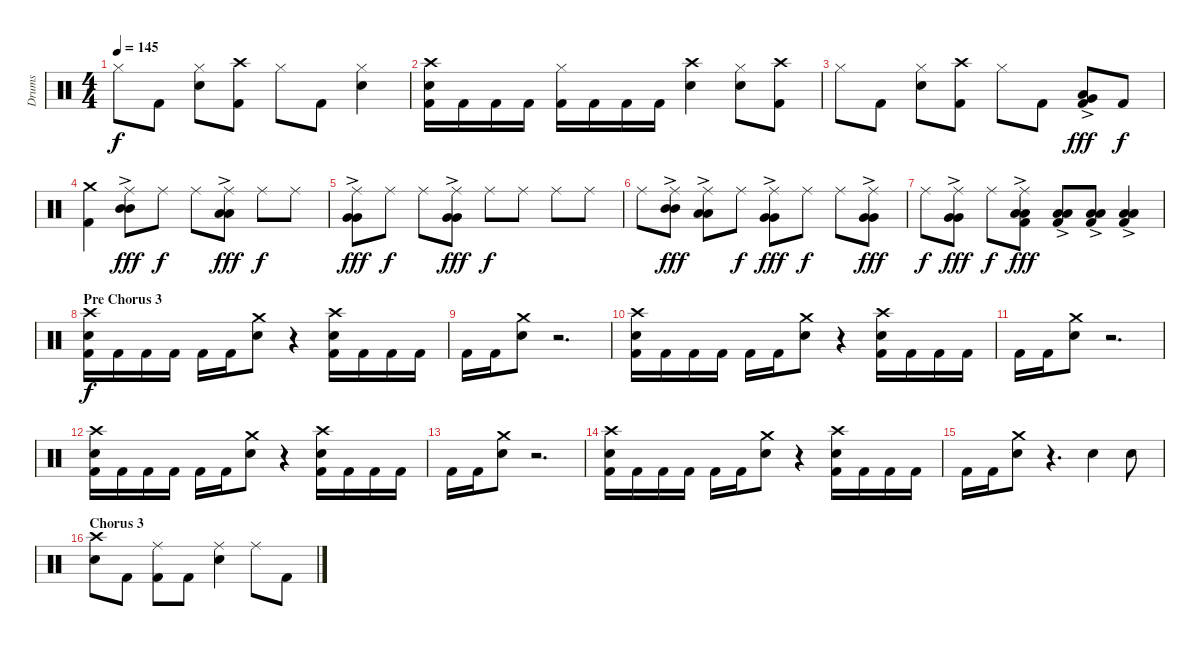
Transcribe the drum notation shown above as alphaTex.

\track ("Drums" "Drums") {instrument percussion}
\staff {score}
\articulation defaults
\ts (4 4)
\tempo 145
\clef neutral
\ks c "Hi-Hat (closed)".8{dy f} "Kick (hit) 2".8
("Hi-Hat (closed)" "Snare (hit) 2").8 ("Crash high (hit)" "Kick (hit) 2").8 "Hi-Hat (closed)".8 "Kick (hit) 2".8 ("Hi-Hat (closed)" "Snare (hit) 2").4 |
("Crash high (hit)" "Snare (hit) 2" "Kick (hit) 2").16 "Kick (hit) 2".16 "Kick (hit) 2".16 "Kick (hit) 2".16 ("Hi-Hat (closed)" "Kick (hit) 2").16 "Kick (hit) 2".16 "Kick (hit) 2".16 "Kick (hit) 2".16 ("Crash high (hit)" "Snare (hit) 2").4 ("Hi-Hat (closed)" "Snare (hit) 2").8 ("Crash high (hit)" "Kick (hit) 2").8 |
"Hi-Hat (closed)".8 "Kick (hit) 2".8 ("Hi-Hat (closed)" "Snare (hit) 2").8 ("Crash high (hit)" "Kick (hit) 2").8 "Hi-Hat (closed)".8 "Kick (hit) 2".8 ("Low Tom (hit)"{ac} "Very Low Tom (hit)"{ac} "Kick (hit) 2").8{dy fff} "Kick (hit) 2".8{dy f} |
("Crash medium (hit)" "Kick (hit) 2").4 ("Ride (middle)" "Mid Tom (hit)"{ac} "Mid Tom (hit)"{ac}).8{dy fff} "Ride (middle)".8{dy f} "Ride (middle)".8 ("Ride (middle)" "Low Tom (hit)"{ac} "Low Tom (hit)"{ac}).8{dy fff} "Ride (middle)".8{dy f} "Ride (middle)".8 |
("Ride (middle)" "Very Low Tom (hit)"{ac} "Very Low Tom (hit)"{ac}).8{dy fff} "Ride (middle)".8{dy f} "Ride (middle)".8 ("Ride (middle)" "Very Low Tom (hit)"{ac} "Very Low Tom (hit)"{ac}).8{dy fff} "Ride (middle)".8{dy f} "Ride (middle)".8 "Ride (middle)".8 "Ride (middle)".8 |
"Ride (middle)".8 ("Ride (middle)" "Mid Tom (hit)" "Mid Tom (hit)"{ac}).8{dy fff} ("Ride (middle)" "Low Tom (hit)" "Low Tom (hit)"{ac}).8 "Ride (middle)".8{dy f} ("Ride (middle)" "Very Low Tom (hit)"{ac} "Very Low Tom (hit)"{ac}).8{dy fff} "Ride (middle)".8{dy f} "Ride (middle)".8 ("Ride (middle)" "Very Low Tom (hit)"{ac} "Very Low Tom (hit)"{ac}).8{dy fff} |
"Ride (middle)".8{dy f} ("Ride (middle)" "Very Low Tom (hit)"{ac} "Very Low Tom (hit)"{ac}).8{dy fff} "Ride (middle)".8{dy f} ("Ride (middle)" "Low Floor Tom (hit)"{ac} "Low Floor Tom (hit)"{ac} "Kick (hit) 2"{ac}).8{dy fff} ("Low Floor Tom (hit)"{ac} "Low Floor Tom (hit)"{ac} "Kick (hit) 2"{ac}).8 ("Low Floor Tom (hit)"{ac} "Low Floor Tom (hit)"{ac} "Kick (hit) 2"{ac}).8 ("Low Floor Tom (hit)"{ac} "Low Floor Tom (hit)"{ac} "Kick (hit) 2"{ac}).4 |
\section ("" "Pre Chorus 3")
("Crash high (hit)" "Snare (hit) 2" "Kick (hit) 2").16{dy f} "Kick (hit) 2".16 "Kick (hit) 2".16 "Kick (hit) 2".16 "Kick (hit) 2".16 "Kick (hit) 2".16 ("Crash medium (hit)" "Snare (hit) 2").8 r.4 ("Crash high (hit)" "Snare (hit) 2" "Kick (hit) 2").16 "Kick (hit) 2".16 "Kick (hit) 2".16 "Kick (hit) 2".16 |
"Kick (hit) 2".16 "Kick (hit) 2".16 ("Crash medium (hit)" "Snare (hit) 2").8 r.2{d} |
("Crash high (hit)" "Snare (hit) 2" "Kick (hit) 2").16 "Kick (hit) 2".16 "Kick (hit) 2".16 "Kick (hit) 2".16 "Kick (hit) 2".16 "Kick (hit) 2".16 ("Crash medium (hit)" "Snare (hit) 2").8 r.4 ("Crash high (hit)" "Snare (hit) 2" "Kick (hit) 2").16 "Kick (hit) 2".16 "Kick (hit) 2".16 "Kick (hit) 2".16 |
"Kick (hit) 2".16 "Kick (hit) 2".16 ("Crash medium (hit)" "Snare (hit) 2").8 r.2{d} |
("Crash high (hit)" "Snare (hit) 2" "Kick (hit) 2").16 "Kick (hit) 2".16 "Kick (hit) 2".16 "Kick (hit) 2".16 "Kick (hit) 2".16 "Kick (hit) 2".16 ("Crash medium (hit)" "Snare (hit) 2").8 r.4 ("Crash high (hit)" "Snare (hit) 2" "Kick (hit) 2").16 "Kick (hit) 2".16 "Kick (hit) 2".16 "Kick (hit) 2".16 |
"Kick (hit) 2".16 "Kick (hit) 2".16 ("Crash medium (hit)" "Snare (hit) 2").8 r.2{d} |
("Crash high (hit)" "Snare (hit) 2" "Kick (hit) 2").16 "Kick (hit) 2".16 "Kick (hit) 2".16 "Kick (hit) 2".16 "Kick (hit) 2".16 "Kick (hit) 2".16 ("Crash medium (hit)" "Snare (hit) 2").8 r.4 ("Crash high (hit)" "Snare (hit) 2" "Kick (hit) 2").16 "Kick (hit) 2".16 "Kick (hit) 2".16 "Kick (hit) 2".16 |
"Kick (hit) 2".16 "Kick (hit) 2".16 ("Crash medium (hit)" "Snare (hit) 2").8 r.4{d} "Snare (hit) 2".4 "Snare (hit) 2".8 |
\section ("" "Chorus 3")
("Crash high (hit)" "Snare (hit) 2").8 "Kick (hit) 2".8 ("Ride (middle)" "Kick (hit) 2").8 "Kick (hit) 2".8 ("Ride (middle)" "Snare (hit) 2").4 "Ride (middle)".8 "Kick (hit) 2".8
